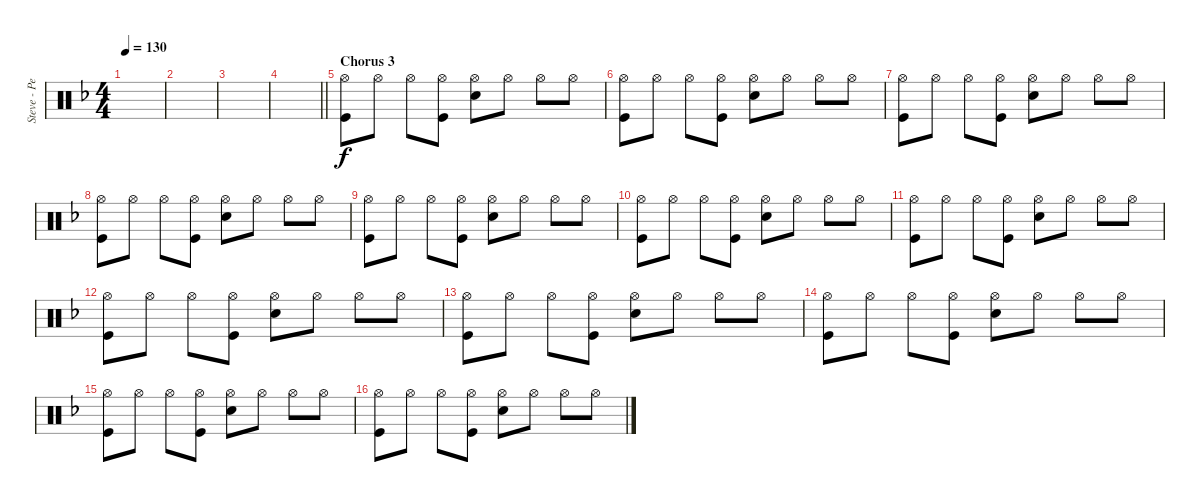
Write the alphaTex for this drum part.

\track ("Steve - Percussion" "Steve - Pe") {instrument percussion}
\staff {score}
\articulation defaults
\ts (4 4)
\tempo 130
\clef neutral
\ks f
|
|
|
\barLineRight lightlight
|
\section ("" "Chorus 3")
("Kick (hit)" "Hi-Hat (open)").8 "Hi-Hat (open)".8 "Hi-Hat (open)".8 ("Kick (hit)" "Hi-Hat (open)").8 ("Snare (hit) 2" "Hi-Hat (open)").8 "Hi-Hat (open)".8 "Hi-Hat (open)".8 "Hi-Hat (open)".8 |
("Kick (hit)" "Hi-Hat (open)").8 "Hi-Hat (open)".8 "Hi-Hat (open)".8 ("Kick (hit)" "Hi-Hat (open)").8 ("Snare (hit) 2" "Hi-Hat (open)").8 "Hi-Hat (open)".8 "Hi-Hat (open)".8 "Hi-Hat (open)".8 |
("Kick (hit)" "Hi-Hat (open)").8 "Hi-Hat (open)".8 "Hi-Hat (open)".8 ("Kick (hit)" "Hi-Hat (open)").8 ("Snare (hit) 2" "Hi-Hat (open)").8 "Hi-Hat (open)".8 "Hi-Hat (open)".8 "Hi-Hat (open)".8 |
("Kick (hit)" "Hi-Hat (open)").8 "Hi-Hat (open)".8 "Hi-Hat (open)".8 ("Kick (hit)" "Hi-Hat (open)").8 ("Snare (hit) 2" "Hi-Hat (open)").8 "Hi-Hat (open)".8 "Hi-Hat (open)".8 "Hi-Hat (open)".8 |
("Kick (hit)" "Hi-Hat (open)").8 "Hi-Hat (open)".8 "Hi-Hat (open)".8 ("Kick (hit)" "Hi-Hat (open)").8 ("Snare (hit) 2" "Hi-Hat (open)").8 "Hi-Hat (open)".8 "Hi-Hat (open)".8 "Hi-Hat (open)".8 |
("Kick (hit)" "Hi-Hat (open)").8 "Hi-Hat (open)".8 "Hi-Hat (open)".8 ("Kick (hit)" "Hi-Hat (open)").8 ("Snare (hit) 2" "Hi-Hat (open)").8 "Hi-Hat (open)".8 "Hi-Hat (open)".8 "Hi-Hat (open)".8 |
("Kick (hit)" "Hi-Hat (open)").8 "Hi-Hat (open)".8 "Hi-Hat (open)".8 ("Kick (hit)" "Hi-Hat (open)").8 ("Snare (hit) 2" "Hi-Hat (open)").8 "Hi-Hat (open)".8 "Hi-Hat (open)".8 "Hi-Hat (open)".8 |
("Kick (hit)" "Hi-Hat (open)").8 "Hi-Hat (open)".8 "Hi-Hat (open)".8 ("Kick (hit)" "Hi-Hat (open)").8 ("Snare (hit) 2" "Hi-Hat (open)").8 "Hi-Hat (open)".8 "Hi-Hat (open)".8 "Hi-Hat (open)".8 |
("Kick (hit)" "Hi-Hat (open)").8 "Hi-Hat (open)".8 "Hi-Hat (open)".8 ("Kick (hit)" "Hi-Hat (open)").8 ("Snare (hit) 2" "Hi-Hat (open)").8 "Hi-Hat (open)".8 "Hi-Hat (open)".8 "Hi-Hat (open)".8 |
("Kick (hit)" "Hi-Hat (open)").8 "Hi-Hat (open)".8 "Hi-Hat (open)".8 ("Kick (hit)" "Hi-Hat (open)").8 ("Snare (hit) 2" "Hi-Hat (open)").8 "Hi-Hat (open)".8 "Hi-Hat (open)".8 "Hi-Hat (open)".8 |
("Kick (hit)" "Hi-Hat (open)").8 "Hi-Hat (open)".8 "Hi-Hat (open)".8 ("Kick (hit)" "Hi-Hat (open)").8 ("Snare (hit) 2" "Hi-Hat (open)").8 "Hi-Hat (open)".8 "Hi-Hat (open)".8 "Hi-Hat (open)".8 |
("Kick (hit)" "Hi-Hat (open)").8 "Hi-Hat (open)".8 "Hi-Hat (open)".8 ("Kick (hit)" "Hi-Hat (open)").8 ("Snare (hit) 2" "Hi-Hat (open)").8 "Hi-Hat (open)".8 "Hi-Hat (open)".8 "Hi-Hat (open)".8
